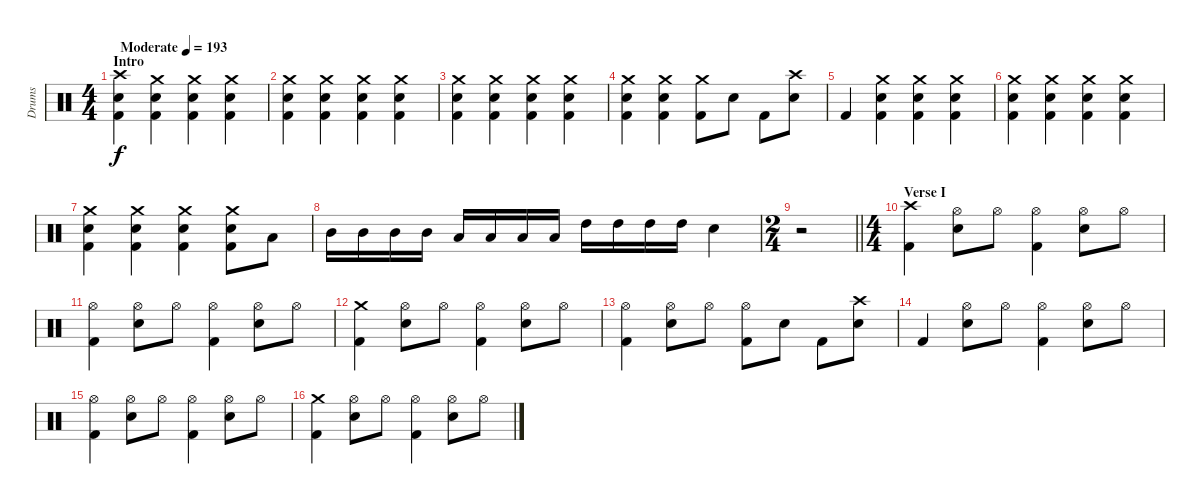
\track ("Drums" "Drums") {instrument percussion}
\staff {score}
\articulation defaults
\ts (4 4)
\section ("" "Intro")
\tempo (193 "Moderate")
\clef neutral
\ks c
("Crash high (hit)" "Snare (hit) 2" "Kick (hit) 2").4{dy f} ("Crash medium (hit)" "Snare (hit) 2" "Kick (hit) 2").4 ("Crash medium (hit)" "Snare (hit) 2" "Kick (hit) 2").4 ("Crash medium (hit)" "Snare (hit) 2" "Kick (hit) 2").4 |
("Crash medium (hit)" "Snare (hit) 2" "Kick (hit) 2").4 ("Crash medium (hit)" "Snare (hit) 2" "Kick (hit) 2").4 ("Crash medium (hit)" "Snare (hit) 2" "Kick (hit) 2").4 ("Crash medium (hit)" "Snare (hit) 2" "Kick (hit) 2").4 |
("Crash medium (hit)" "Snare (hit) 2" "Kick (hit) 2").4 ("Crash medium (hit)" "Snare (hit) 2" "Kick (hit) 2").4 ("Crash medium (hit)" "Snare (hit) 2" "Kick (hit) 2").4 ("Crash medium (hit)" "Snare (hit) 2" "Kick (hit) 2").4 |
("Crash medium (hit)" "Snare (hit) 2" "Kick (hit) 2").4 ("Crash medium (hit)" "Snare (hit) 2" "Kick (hit) 2").4 ("Crash medium (hit)" "Kick (hit) 2").8 "Snare (hit) 2".8 "Kick (hit) 2".8 ("Crash high (hit)" "Snare (hit) 2").8 |
"Kick (hit) 2".4 ("Crash medium (hit)" "Snare (hit) 2" "Kick (hit) 2").4 ("Crash medium (hit)" "Snare (hit) 2" "Kick (hit) 2").4 ("Crash medium (hit)" "Snare (hit) 2" "Kick (hit) 2").4 |
("Crash medium (hit)" "Snare (hit) 2" "Kick (hit) 2").4 ("Crash medium (hit)" "Snare (hit) 2" "Kick (hit) 2").4 ("Crash medium (hit)" "Snare (hit) 2" "Kick (hit) 2").4 ("Crash medium (hit)" "Snare (hit) 2" "Kick (hit) 2").4 |
("Crash medium (hit)" "Snare (hit) 2" "Kick (hit) 2").4 ("Crash medium (hit)" "Snare (hit) 2" "Kick (hit) 2").4 ("Crash medium (hit)" "Snare (hit) 2" "Kick (hit) 2").4 ("Crash medium (hit)" "Snare (hit) 2" "Kick (hit) 2").8 "Low Tom (hit)".8 |
"Mid Tom (hit)".16 "Mid Tom (hit)".16 "Mid Tom (hit)".16 "Mid Tom (hit)".16 "Low Tom (hit)".16 "Low Tom (hit)".16 "Low Tom (hit)".16 "Low Tom (hit)".16 "High Tom (hit)".16 "High Tom (hit)".16 "High Tom (hit)".16 "High Tom (hit)".16 "Snare (hit) 2".4 |
\ts (2 4)
\barLineRight lightlight
r.2 |
\ts (4 4)
\section ("" "Verse I")
("Crash high (hit)" "Kick (hit) 2").4 ("Hi-Hat (open)" "Snare (hit) 2").8 "Hi-Hat (open)".8 ("Hi-Hat (open)" "Kick (hit) 2").4 ("Hi-Hat (open)" "Snare (hit) 2").8 "Hi-Hat (open)".8 |
("Hi-Hat (open)" "Kick (hit) 2").4 ("Hi-Hat (open)" "Snare (hit) 2").8 "Hi-Hat (open)".8 ("Hi-Hat (open)" "Kick (hit) 2").4 ("Hi-Hat (open)" "Snare (hit) 2").8 "Hi-Hat (open)".8 |
("Crash medium (hit)" "Kick (hit) 2").4 ("Hi-Hat (open)" "Snare (hit) 2").8 "Hi-Hat (open)".8 ("Hi-Hat (open)" "Kick (hit) 2").4 ("Hi-Hat (open)" "Snare (hit) 2").8 "Hi-Hat (open)".8 |
("Hi-Hat (open)" "Kick (hit) 2").4 ("Hi-Hat (open)" "Snare (hit) 2").8 "Hi-Hat (open)".8 ("Hi-Hat (open)" "Kick (hit) 2").8 "Snare (hit) 2".8 "Kick (hit) 2".8 ("Crash high (hit)" "Snare (hit) 2").8 |
"Kick (hit) 2".4 ("Hi-Hat (open)" "Snare (hit) 2").8 "Hi-Hat (open)".8 ("Hi-Hat (open)" "Kick (hit) 2").4 ("Hi-Hat (open)" "Snare (hit) 2").8 "Hi-Hat (open)".8 |
("Hi-Hat (open)" "Kick (hit) 2").4 ("Hi-Hat (open)" "Snare (hit) 2").8 "Hi-Hat (open)".8 ("Hi-Hat (open)" "Kick (hit) 2").4 ("Hi-Hat (open)" "Snare (hit) 2").8 "Hi-Hat (open)".8 |
("Crash medium (hit)" "Kick (hit) 2").4 ("Hi-Hat (open)" "Snare (hit) 2").8 "Hi-Hat (open)".8 ("Hi-Hat (open)" "Kick (hit) 2").4 ("Hi-Hat (open)" "Snare (hit) 2").8 "Hi-Hat (open)".8
